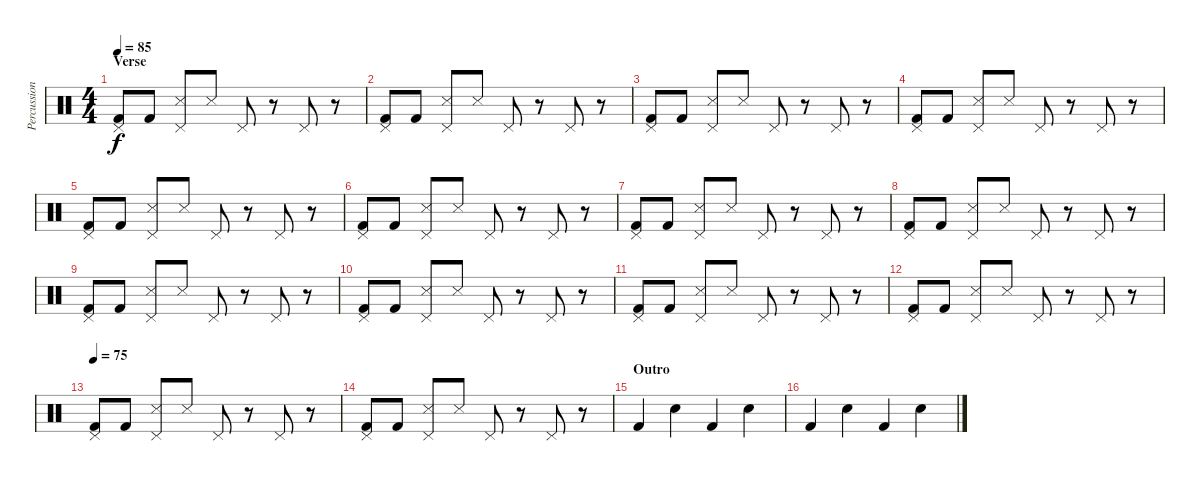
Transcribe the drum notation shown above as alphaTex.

\track ("Percussion . Jeremiah Green" "Percussion") {instrument percussion}
\staff {score}
\articulation defaults
\ts (4 4)
\section ("" "Verse")
\tempo 85
\clef neutral
\ks c
("Pedal Hi-Hat (hit)" "Kick (hit) 2").8{dy f} "Kick (hit) 2".8 ("Pedal Hi-Hat (hit)" "Snare (side stick) 3").8 "Snare (side stick) 3".8 "Pedal Hi-Hat (hit)".8 r.8 "Pedal Hi-Hat (hit)".8 r.8 |
("Pedal Hi-Hat (hit)" "Kick (hit) 2").8 "Kick (hit) 2".8 ("Pedal Hi-Hat (hit)" "Snare (side stick) 3").8 "Snare (side stick) 3".8 "Pedal Hi-Hat (hit)".8 r.8 "Pedal Hi-Hat (hit)".8 r.8 |
("Pedal Hi-Hat (hit)" "Kick (hit) 2").8 "Kick (hit) 2".8 ("Pedal Hi-Hat (hit)" "Snare (side stick) 3").8 "Snare (side stick) 3".8 "Pedal Hi-Hat (hit)".8 r.8 "Pedal Hi-Hat (hit)".8 r.8 |
("Pedal Hi-Hat (hit)" "Kick (hit) 2").8 "Kick (hit) 2".8 ("Pedal Hi-Hat (hit)" "Snare (side stick) 3").8 "Snare (side stick) 3".8 "Pedal Hi-Hat (hit)".8 r.8 "Pedal Hi-Hat (hit)".8 r.8 |
("Pedal Hi-Hat (hit)" "Kick (hit) 2").8 "Kick (hit) 2".8 ("Pedal Hi-Hat (hit)" "Snare (side stick) 3").8 "Snare (side stick) 3".8 "Pedal Hi-Hat (hit)".8 r.8 "Pedal Hi-Hat (hit)".8 r.8 |
("Pedal Hi-Hat (hit)" "Kick (hit) 2").8 "Kick (hit) 2".8 ("Pedal Hi-Hat (hit)" "Snare (side stick) 3").8 "Snare (side stick) 3".8 "Pedal Hi-Hat (hit)".8 r.8 "Pedal Hi-Hat (hit)".8 r.8 |
("Pedal Hi-Hat (hit)" "Kick (hit) 2").8 "Kick (hit) 2".8 ("Pedal Hi-Hat (hit)" "Snare (side stick) 3").8 "Snare (side stick) 3".8 "Pedal Hi-Hat (hit)".8 r.8 "Pedal Hi-Hat (hit)".8 r.8 |
("Pedal Hi-Hat (hit)" "Kick (hit) 2").8 "Kick (hit) 2".8 ("Pedal Hi-Hat (hit)" "Snare (side stick) 3").8 "Snare (side stick) 3".8 "Pedal Hi-Hat (hit)".8 r.8 "Pedal Hi-Hat (hit)".8 r.8 |
("Pedal Hi-Hat (hit)" "Kick (hit) 2").8 "Kick (hit) 2".8 ("Pedal Hi-Hat (hit)" "Snare (side stick) 3").8 "Snare (side stick) 3".8 "Pedal Hi-Hat (hit)".8 r.8 "Pedal Hi-Hat (hit)".8 r.8 |
("Pedal Hi-Hat (hit)" "Kick (hit) 2").8 "Kick (hit) 2".8 ("Pedal Hi-Hat (hit)" "Snare (side stick) 3").8 "Snare (side stick) 3".8 "Pedal Hi-Hat (hit)".8 r.8 "Pedal Hi-Hat (hit)".8 r.8 |
("Pedal Hi-Hat (hit)" "Kick (hit) 2").8 "Kick (hit) 2".8 ("Pedal Hi-Hat (hit)" "Snare (side stick) 3").8 "Snare (side stick) 3".8 "Pedal Hi-Hat (hit)".8 r.8 "Pedal Hi-Hat (hit)".8 r.8 |
("Pedal Hi-Hat (hit)" "Kick (hit) 2").8 "Kick (hit) 2".8 ("Pedal Hi-Hat (hit)" "Snare (side stick) 3").8 "Snare (side stick) 3".8 "Pedal Hi-Hat (hit)".8 r.8 "Pedal Hi-Hat (hit)".8 r.8 |
\tempo 75
("Pedal Hi-Hat (hit)" "Kick (hit) 2").8 "Kick (hit) 2".8 ("Pedal Hi-Hat (hit)" "Snare (side stick) 3").8 "Snare (side stick) 3".8 "Pedal Hi-Hat (hit)".8 r.8 "Pedal Hi-Hat (hit)".8 r.8 |
("Pedal Hi-Hat (hit)" "Kick (hit) 2").8 "Kick (hit) 2".8 ("Pedal Hi-Hat (hit)" "Snare (side stick) 3").8 "Snare (side stick) 3".8 "Pedal Hi-Hat (hit)".8 r.8 "Pedal Hi-Hat (hit)".8 r.8 |
\section ("" "Outro")
"Kick (hit) 2".4 "Electric Snare (hit)".4 "Kick (hit) 2".4 "Electric Snare (hit)".4 |
"Kick (hit) 2".4 "Electric Snare (hit)".4 "Kick (hit) 2".4 "Electric Snare (hit)".4
